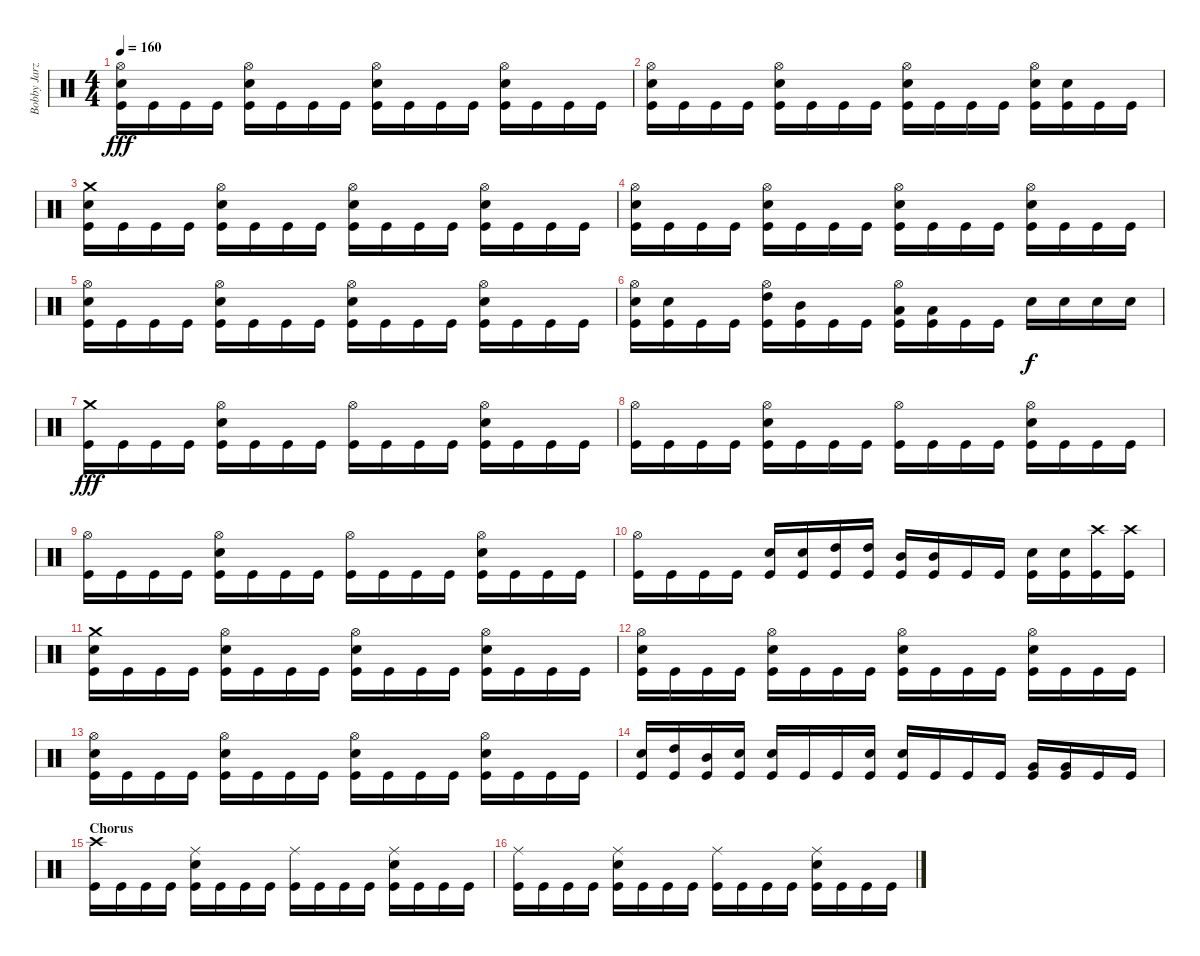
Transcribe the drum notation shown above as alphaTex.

\track ("Bobby Jarzombek" "Bobby Jarz") {instrument percussion}
\staff {score}
\articulation defaults
\ts (4 4)
\tempo 160
\clef neutral
\ks c
("Hi-Hat (open)" "Electric Snare (hit)" "Kick (hit)").16{dy fff} "Kick (hit)".16 "Kick (hit)".16 "Kick (hit)".16 ("Hi-Hat (open)" "Electric Snare (hit)" "Kick (hit)").16 "Kick (hit)".16 "Kick (hit)".16 "Kick (hit)".16 ("Hi-Hat (open)" "Electric Snare (hit)" "Kick (hit)").16 "Kick (hit)".16 "Kick (hit)".16 "Kick (hit)".16 ("Hi-Hat (open)" "Electric Snare (hit)" "Kick (hit)").16 "Kick (hit)".16 "Kick (hit)".16 "Kick (hit)".16 |
("Hi-Hat (open)" "Electric Snare (hit)" "Kick (hit)").16 "Kick (hit)".16 "Kick (hit)".16 "Kick (hit)".16 ("Hi-Hat (open)" "Electric Snare (hit)" "Kick (hit)").16 "Kick (hit)".16 "Kick (hit)".16 "Kick (hit)".16 ("Hi-Hat (open)" "Electric Snare (hit)" "Kick (hit)").16 "Kick (hit)".16 "Kick (hit)".16 "Kick (hit)".16 ("Hi-Hat (open)" "Electric Snare (hit)" "Kick (hit)").16 ("Electric Snare (hit)" "Kick (hit)").16 "Kick (hit)".16 "Kick (hit)".16 |
("Crash medium (hit)" "Electric Snare (hit)" "Kick (hit)").16 "Kick (hit)".16 "Kick (hit)".16 "Kick (hit)".16 ("Hi-Hat (open)" "Electric Snare (hit)" "Kick (hit)").16 "Kick (hit)".16 "Kick (hit)".16 "Kick (hit)".16 ("Hi-Hat (open)" "Electric Snare (hit)" "Kick (hit)").16 "Kick (hit)".16 "Kick (hit)".16 "Kick (hit)".16 ("Hi-Hat (open)" "Electric Snare (hit)" "Kick (hit)").16 "Kick (hit)".16 "Kick (hit)".16 "Kick (hit)".16 |
("Hi-Hat (open)" "Electric Snare (hit)" "Kick (hit)").16 "Kick (hit)".16 "Kick (hit)".16 "Kick (hit)".16 ("Hi-Hat (open)" "Electric Snare (hit)" "Kick (hit)").16 "Kick (hit)".16 "Kick (hit)".16 "Kick (hit)".16 ("Hi-Hat (open)" "Electric Snare (hit)" "Kick (hit)").16 "Kick (hit)".16 "Kick (hit)".16 "Kick (hit)".16 ("Hi-Hat (open)" "Electric Snare (hit)" "Kick (hit)").16 "Kick (hit)".16 "Kick (hit)".16 "Kick (hit)".16 |
("Hi-Hat (open)" "Electric Snare (hit)" "Kick (hit)").16 "Kick (hit)".16 "Kick (hit)".16 "Kick (hit)".16 ("Hi-Hat (open)" "Electric Snare (hit)" "Kick (hit)").16 "Kick (hit)".16 "Kick (hit)".16 "Kick (hit)".16 ("Hi-Hat (open)" "Electric Snare (hit)" "Kick (hit)").16 "Kick (hit)".16 "Kick (hit)".16 "Kick (hit)".16 ("Hi-Hat (open)" "Electric Snare (hit)" "Kick (hit)").16 "Kick (hit)".16 "Kick (hit)".16 "Kick (hit)".16 |
("Hi-Hat (open)" "Electric Snare (hit)" "Kick (hit)").16 ("Electric Snare (hit)" "Kick (hit)").16 "Kick (hit)".16 "Kick (hit)".16 ("Hi-Hat (open)" "High Tom (hit)" "Kick (hit)").16 ("Mid Tom (hit)" "Kick (hit)").16 "Kick (hit)".16 "Kick (hit)".16 ("Hi-Hat (open)" "Low Tom (hit)" "Kick (hit)").16 ("Low Tom (hit)" "Kick (hit)").16 "Kick (hit)".16 "Kick (hit)".16 "Electric Snare (hit)".16{dy f} "Electric Snare (hit)".16 "Electric Snare (hit)".16 "Electric Snare (hit)".16 |
("Crash medium (hit)" "Kick (hit)").16{dy fff} "Kick (hit)".16 "Kick (hit)".16 "Kick (hit)".16 ("Hi-Hat (open)" "Electric Snare (hit)" "Kick (hit)").16 "Kick (hit)".16 "Kick (hit)".16 "Kick (hit)".16 ("Hi-Hat (open)" "Kick (hit)").16 "Kick (hit)".16 "Kick (hit)".16 "Kick (hit)".16 ("Hi-Hat (open)" "Electric Snare (hit)" "Kick (hit)").16 "Kick (hit)".16 "Kick (hit)".16 "Kick (hit)".16 |
("Hi-Hat (open)" "Kick (hit)").16 "Kick (hit)".16 "Kick (hit)".16 "Kick (hit)".16 ("Hi-Hat (open)" "Electric Snare (hit)" "Kick (hit)").16 "Kick (hit)".16 "Kick (hit)".16 "Kick (hit)".16 ("Hi-Hat (open)" "Kick (hit)").16 "Kick (hit)".16 "Kick (hit)".16 "Kick (hit)".16 ("Hi-Hat (open)" "Electric Snare (hit)" "Kick (hit)").16 "Kick (hit)".16 "Kick (hit)".16 "Kick (hit)".16 |
("Hi-Hat (open)" "Kick (hit)").16 "Kick (hit)".16 "Kick (hit)".16 "Kick (hit)".16 ("Hi-Hat (open)" "Electric Snare (hit)" "Kick (hit)").16 "Kick (hit)".16 "Kick (hit)".16 "Kick (hit)".16 ("Hi-Hat (open)" "Kick (hit)").16 "Kick (hit)".16 "Kick (hit)".16 "Kick (hit)".16 ("Hi-Hat (open)" "Electric Snare (hit)" "Kick (hit)").16 "Kick (hit)".16 "Kick (hit)".16 "Kick (hit)".16 |
("Hi-Hat (open)" "Kick (hit)").16 "Kick (hit)".16 "Kick (hit)".16 "Kick (hit)".16 ("Electric Snare (hit)" "Kick (hit)").16 ("Electric Snare (hit)" "Kick (hit)").16 ("High Tom (hit)" "Kick (hit)").16 ("High Tom (hit)" "Kick (hit)").16 ("Mid Tom (hit)" "Kick (hit)").16 ("Mid Tom (hit)" "Kick (hit)").16 "Kick (hit)".16 "Kick (hit)".16 ("Electric Snare (hit)" "Kick (hit)").16 ("Electric Snare (hit)" "Kick (hit)").16 ("Crash high (hit)" "Kick (hit)").16 ("Crash high (hit)" "Kick (hit)").16 |
("Crash medium (hit)" "Electric Snare (hit)" "Kick (hit)").16 "Kick (hit)".16 "Kick (hit)".16 "Kick (hit)".16 ("Hi-Hat (open)" "Electric Snare (hit)" "Kick (hit)").16 "Kick (hit)".16 "Kick (hit)".16 "Kick (hit)".16 ("Hi-Hat (open)" "Electric Snare (hit)" "Kick (hit)").16 "Kick (hit)".16 "Kick (hit)".16 "Kick (hit)".16 ("Hi-Hat (open)" "Electric Snare (hit)" "Kick (hit)").16 "Kick (hit)".16 "Kick (hit)".16 "Kick (hit)".16 |
("Hi-Hat (open)" "Electric Snare (hit)" "Kick (hit)").16 "Kick (hit)".16 "Kick (hit)".16 "Kick (hit)".16 ("Hi-Hat (open)" "Electric Snare (hit)" "Kick (hit)").16 "Kick (hit)".16 "Kick (hit)".16 "Kick (hit)".16 ("Hi-Hat (open)" "Electric Snare (hit)" "Kick (hit)").16 "Kick (hit)".16 "Kick (hit)".16 "Kick (hit)".16 ("Hi-Hat (open)" "Electric Snare (hit)" "Kick (hit)").16 "Kick (hit)".16 "Kick (hit)".16 "Kick (hit)".16 |
("Hi-Hat (open)" "Electric Snare (hit)" "Kick (hit)").16 "Kick (hit)".16 "Kick (hit)".16 "Kick (hit)".16 ("Hi-Hat (open)" "Electric Snare (hit)" "Kick (hit)").16 "Kick (hit)".16 "Kick (hit)".16 "Kick (hit)".16 ("Hi-Hat (open)" "Electric Snare (hit)" "Kick (hit)").16 "Kick (hit)".16 "Kick (hit)".16 "Kick (hit)".16 ("Hi-Hat (open)" "Electric Snare (hit)" "Kick (hit)").16 "Kick (hit)".16 "Kick (hit)".16 "Kick (hit)".16 |
("Electric Snare (hit)" "Kick (hit)").16 ("High Tom (hit)" "Kick (hit)").16 ("Mid Tom (hit)" "Kick (hit)").16 ("Electric Snare (hit)" "Kick (hit)").16 ("Electric Snare (hit)" "Kick (hit)").16 "Kick (hit)".16 "Kick (hit)".16 ("Electric Snare (hit)" "Kick (hit)").16 ("Electric Snare (hit)" "Kick (hit)").16 "Kick (hit)".16 "Kick (hit)".16 "Kick (hit)".16 ("Very Low Tom (hit)" "Kick (hit)").16 ("Very Low Tom (hit)" "Kick (hit)").16 "Kick (hit)".16 "Kick (hit)".16 |
\section ("" "Chorus")
("Crash high (hit)" "Kick (hit)").16 "Kick (hit)".16 "Kick (hit)".16 "Kick (hit)".16 ("Ride (middle)" "Electric Snare (hit)" "Kick (hit)").16 "Kick (hit)".16 "Kick (hit)".16 "Kick (hit)".16 ("Ride (middle)" "Kick (hit)").16 "Kick (hit)".16 "Kick (hit)".16 "Kick (hit)".16 ("Ride (middle)" "Electric Snare (hit)" "Kick (hit)").16 "Kick (hit)".16 "Kick (hit)".16 "Kick (hit)".16 |
("Ride (middle)" "Kick (hit)").16 "Kick (hit)".16 "Kick (hit)".16 "Kick (hit)".16 ("Ride (middle)" "Electric Snare (hit)" "Kick (hit)").16 "Kick (hit)".16 "Kick (hit)".16 "Kick (hit)".16 ("Ride (middle)" "Kick (hit)").16 "Kick (hit)".16 "Kick (hit)".16 "Kick (hit)".16 ("Ride (middle)" "Electric Snare (hit)" "Kick (hit)").16 "Kick (hit)".16 "Kick (hit)".16 "Kick (hit)".16
